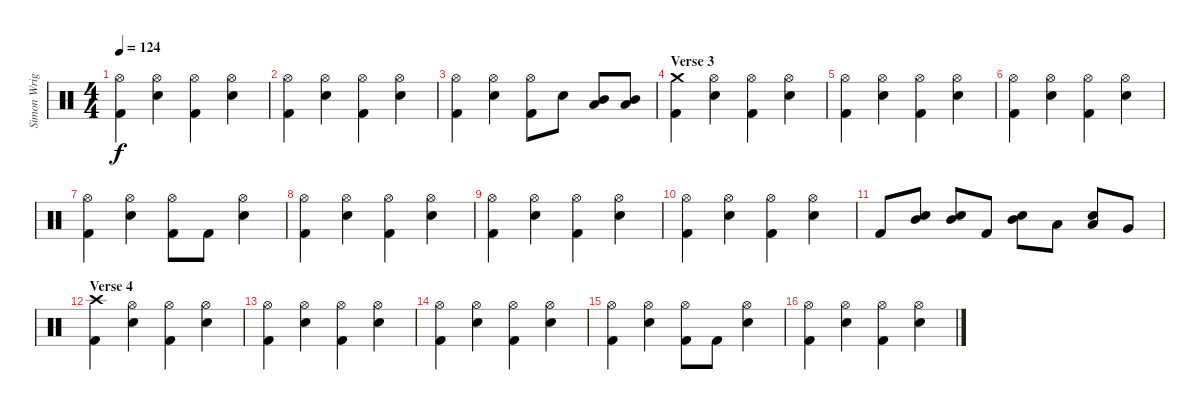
\track ("Simon Wright" "Simon Wrig") {instrument percussion}
\staff {score}
\articulation defaults
\ts (4 4)
\tempo 124
\clef neutral
\ks c
("Hi-Hat (open)" "Kick (hit) 2").4{dy f} ("Hi-Hat (open)" "Electric Snare (hit)").4 ("Hi-Hat (open)" "Kick (hit) 2").4 ("Hi-Hat (open)" "Electric Snare (hit)").4 |
("Hi-Hat (open)" "Kick (hit) 2").4 ("Hi-Hat (open)" "Electric Snare (hit)").4 ("Hi-Hat (open)" "Kick (hit) 2").4 ("Hi-Hat (open)" "Electric Snare (hit)").4 |
("Hi-Hat (open)" "Kick (hit) 2").4 ("Hi-Hat (open)" "Electric Snare (hit)").4 ("Hi-Hat (open)" "Kick (hit) 2").8 "Electric Snare (hit)".8 ("Mid Tom (hit)" "Low Tom (hit)").8 ("Mid Tom (hit)" "Low Tom (hit)").8 |
\section ("" "Verse 3")
("Crash medium (hit)" "Kick (hit) 2").4 ("Hi-Hat (open)" "Electric Snare (hit)").4 ("Hi-Hat (open)" "Kick (hit) 2").4 ("Hi-Hat (open)" "Electric Snare (hit)").4 |
("Hi-Hat (open)" "Kick (hit) 2").4 ("Hi-Hat (open)" "Electric Snare (hit)").4 ("Hi-Hat (open)" "Kick (hit) 2").4 ("Hi-Hat (open)" "Electric Snare (hit)").4 |
("Hi-Hat (open)" "Kick (hit) 2").4 ("Hi-Hat (open)" "Electric Snare (hit)").4 ("Hi-Hat (open)" "Kick (hit) 2").4 ("Hi-Hat (open)" "Electric Snare (hit)").4 |
("Hi-Hat (open)" "Kick (hit) 2").4 ("Hi-Hat (open)" "Electric Snare (hit)").4 ("Hi-Hat (open)" "Kick (hit) 2").8 "Kick (hit) 2".8 ("Hi-Hat (open)" "Electric Snare (hit)").4 |
("Hi-Hat (open)" "Kick (hit) 2").4 ("Hi-Hat (open)" "Electric Snare (hit)").4 ("Hi-Hat (open)" "Kick (hit) 2").4 ("Hi-Hat (open)" "Electric Snare (hit)").4 |
("Hi-Hat (open)" "Kick (hit) 2").4 ("Hi-Hat (open)" "Electric Snare (hit)").4 ("Hi-Hat (open)" "Kick (hit) 2").4 ("Hi-Hat (open)" "Electric Snare (hit)").4 |
("Hi-Hat (open)" "Kick (hit) 2").4 ("Hi-Hat (open)" "Electric Snare (hit)").4 ("Hi-Hat (open)" "Kick (hit) 2").4 ("Hi-Hat (open)" "Electric Snare (hit)").4 |
"Kick (hit) 2".8 ("Mid Tom (hit)" "Electric Snare (hit)").8 ("Mid Tom (hit)" "Electric Snare (hit)").8 "Kick (hit) 2".8 ("Mid Tom (hit)" "Electric Snare (hit)").8 "Low Tom (hit)".8 ("Low Tom (hit)" "Electric Snare (hit)").8 "Very Low Tom (hit)".8 |
\section ("" "Verse 4")
("Crash high (hit)" "Kick (hit) 2").4 ("Hi-Hat (open)" "Electric Snare (hit)").4 ("Hi-Hat (open)" "Kick (hit) 2").4 ("Hi-Hat (open)" "Electric Snare (hit)").4 |
("Hi-Hat (open)" "Kick (hit) 2").4 ("Hi-Hat (open)" "Electric Snare (hit)").4 ("Hi-Hat (open)" "Kick (hit) 2").4 ("Hi-Hat (open)" "Electric Snare (hit)").4 |
("Hi-Hat (open)" "Kick (hit) 2").4 ("Hi-Hat (open)" "Electric Snare (hit)").4 ("Hi-Hat (open)" "Kick (hit) 2").4 ("Hi-Hat (open)" "Electric Snare (hit)").4 |
("Hi-Hat (open)" "Kick (hit) 2").4 ("Hi-Hat (open)" "Electric Snare (hit)").4 ("Hi-Hat (open)" "Kick (hit) 2").8 "Kick (hit) 2".8 ("Hi-Hat (open)" "Electric Snare (hit)").4 |
("Hi-Hat (open)" "Kick (hit) 2").4 ("Hi-Hat (open)" "Electric Snare (hit)").4 ("Hi-Hat (open)" "Kick (hit) 2").4 ("Hi-Hat (open)" "Electric Snare (hit)").4
